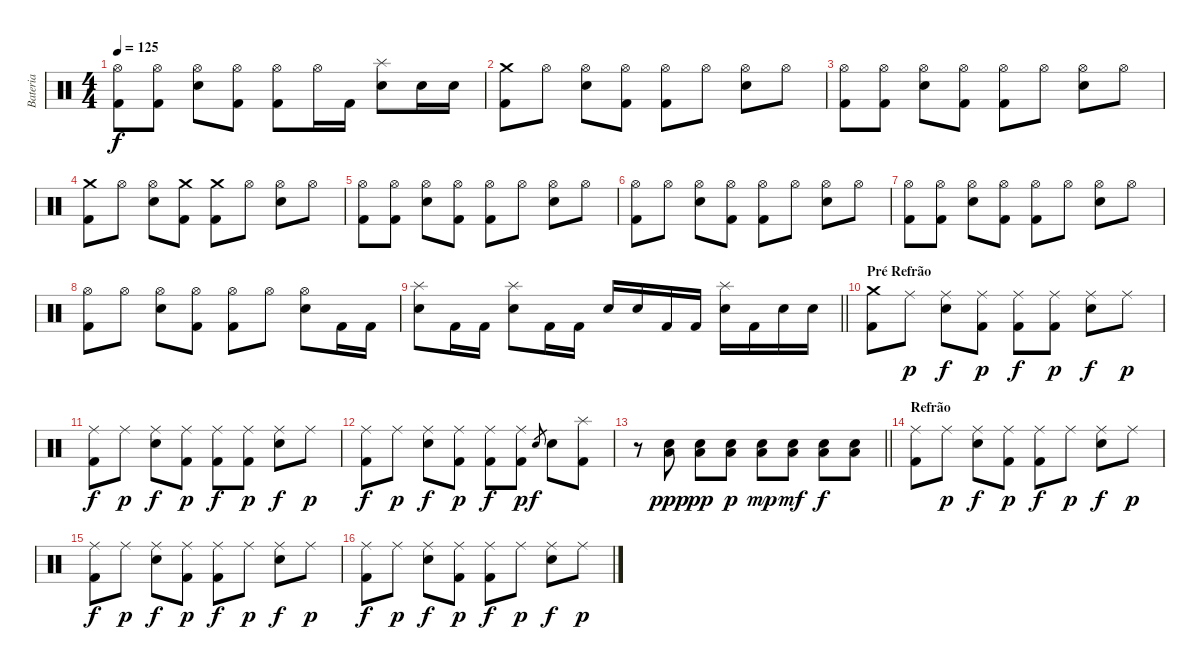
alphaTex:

\track ("Bateria" "Bateria") {instrument percussion}
\staff {score}
\articulation defaults
\ts (4 4)
\tempo 125
\clef neutral
\ks c
("Hi-Hat (open)" "Kick (hit) 2").8{dy f} ("Hi-Hat (open)" "Kick (hit) 2").8 ("Hi-Hat (open)" "Electric Snare (hit)").8 ("Hi-Hat (open)" "Kick (hit) 2").8 ("Hi-Hat (open)" "Kick (hit) 2").8 "Hi-Hat (open)".16 "Kick (hit) 2".16 ("Splash (hit)" "Electric Snare (hit)").8 "Electric Snare (hit)".16 "Electric Snare (hit)".16 |
("Crash medium (hit)" "Kick (hit) 2").8 "Hi-Hat (open)".8 ("Hi-Hat (open)" "Electric Snare (hit)").8 ("Hi-Hat (open)" "Kick (hit) 2").8 ("Hi-Hat (open)" "Kick (hit) 2").8 "Hi-Hat (open)".8 ("Hi-Hat (open)" "Electric Snare (hit)").8 "Hi-Hat (open)".8 |
("Hi-Hat (open)" "Kick (hit) 2").8 ("Hi-Hat (open)" "Kick (hit) 2").8 ("Hi-Hat (open)" "Electric Snare (hit)").8 ("Hi-Hat (open)" "Kick (hit) 2").8 ("Hi-Hat (open)" "Kick (hit) 2").8 "Hi-Hat (open)".8 ("Hi-Hat (open)" "Electric Snare (hit)").8 "Hi-Hat (open)".8 |
("Crash medium (hit)" "Kick (hit) 2").8 "Hi-Hat (open)".8 ("Hi-Hat (open)" "Electric Snare (hit)").8 ("Crash medium (hit)" "Kick (hit) 2").8 ("Crash medium (hit)" "Kick (hit) 2").8 "Hi-Hat (open)".8 ("Hi-Hat (open)" "Electric Snare (hit)").8 "Hi-Hat (open)".8 |
("Hi-Hat (open)" "Kick (hit) 2").8 ("Hi-Hat (open)" "Kick (hit) 2").8 ("Hi-Hat (open)" "Electric Snare (hit)").8 ("Hi-Hat (open)" "Kick (hit) 2").8 ("Hi-Hat (open)" "Kick (hit) 2").8 "Hi-Hat (open)".8 ("Hi-Hat (open)" "Electric Snare (hit)").8 "Hi-Hat (open)".8 |
("Hi-Hat (open)" "Kick (hit) 2").8 "Hi-Hat (open)".8 ("Hi-Hat (open)" "Electric Snare (hit)").8 ("Hi-Hat (open)" "Kick (hit) 2").8 ("Hi-Hat (open)" "Kick (hit) 2").8 "Hi-Hat (open)".8 ("Hi-Hat (open)" "Electric Snare (hit)").8 "Hi-Hat (open)".8 |
("Hi-Hat (open)" "Kick (hit) 2").8 ("Hi-Hat (open)" "Kick (hit) 2").8 ("Hi-Hat (open)" "Electric Snare (hit)").8 ("Hi-Hat (open)" "Kick (hit) 2").8 ("Hi-Hat (open)" "Kick (hit) 2").8 "Hi-Hat (open)".8 ("Hi-Hat (open)" "Electric Snare (hit)").8 "Hi-Hat (open)".8 |
("Hi-Hat (open)" "Kick (hit) 2").8 "Hi-Hat (open)".8 ("Hi-Hat (open)" "Electric Snare (hit)").8 ("Hi-Hat (open)" "Kick (hit) 2").8 ("Hi-Hat (open)" "Kick (hit) 2").8 "Hi-Hat (open)".8 ("Hi-Hat (open)" "Electric Snare (hit)").8 "Kick (hit) 2".16 "Kick (hit) 2".16 |
\barLineRight lightlight
("Splash (hit)" "Electric Snare (hit)").8 "Kick (hit) 2".16 "Kick (hit) 2".16 ("Splash (hit)" "Electric Snare (hit)").8 "Kick (hit) 2".16 "Kick (hit) 2".16 "Electric Snare (hit)".16 "Electric Snare (hit)".16 "Kick (hit) 2".16 "Kick (hit) 2".16 ("Splash (hit)" "Electric Snare (hit)").16 "Kick (hit) 2".16 "Electric Snare (hit)".16 "Electric Snare (hit)".16 |
\section ("" "Pré Refrão")
("Crash medium (hit)" "Kick (hit) 2").8 "Ride (middle)".8{dy p} ("Ride (middle)" "Electric Snare (hit)").8{dy f} ("Ride (middle)" "Kick (hit) 2").8{dy p} ("Ride (middle)" "Kick (hit) 2").8{dy f} ("Ride (middle)" "Kick (hit) 2").8{dy p} ("Ride (middle)" "Electric Snare (hit)").8{dy f} "Ride (middle)".8{dy p} |
("Ride (middle)" "Kick (hit) 2").8{dy f} "Ride (middle)".8{dy p} ("Ride (middle)" "Electric Snare (hit)").8{dy f} ("Ride (middle)" "Kick (hit) 2").8{dy p} ("Ride (middle)" "Kick (hit) 2").8{dy f} ("Ride (middle)" "Kick (hit) 2").8{dy p} ("Ride (middle)" "Electric Snare (hit)").8{dy f} "Ride (middle)".8{dy p} |
("Ride (middle)" "Kick (hit) 2").8{dy f} "Ride (middle)".8{dy p} ("Ride (middle)" "Electric Snare (hit)").8{dy f} ("Ride (middle)" "Kick (hit) 2").8{dy p} ("Ride (middle)" "Kick (hit) 2").8{dy f} ("Ride (middle)" "Kick (hit) 2").8{dy p} "Electric Snare (hit)".8{gr dy f} "Electric Snare (hit)".8 ("Splash (hit)" "Kick (hit) 2").8 |
\barLineRight lightlight
r.8 ("Snare (hit)" "Low Floor Tom (hit)").8{dy ppp} ("Electric Snare (hit)" "Low Floor Tom (hit)").8{dy pp} ("Electric Snare (hit)" "Low Floor Tom (hit)").8{dy p} ("Electric Snare (hit)" "Low Floor Tom (hit)").8{dy mp} ("Electric Snare (hit)" "Low Floor Tom (hit)").8{dy mf} ("Electric Snare (hit)" "Low Floor Tom (hit)").8{dy f} ("Electric Snare (hit)" "Low Floor Tom (hit)").8 |
\section ("" "Refrão")
("Ride (middle)" "Kick (hit) 2").8 "Ride (middle)".8{dy p} ("Ride (middle)" "Electric Snare (hit)").8{dy f} ("Ride (middle)" "Kick (hit) 2").8{dy p} ("Ride (middle)" "Kick (hit) 2").8{dy f} "Ride (middle)".8{dy p} ("Ride (middle)" "Electric Snare (hit)").8{dy f} "Ride (middle)".8{dy p} |
("Ride (middle)" "Kick (hit) 2").8{dy f} "Ride (middle)".8{dy p} ("Ride (middle)" "Electric Snare (hit)").8{dy f} ("Ride (middle)" "Kick (hit) 2").8{dy p} ("Ride (middle)" "Kick (hit) 2").8{dy f} "Ride (middle)".8{dy p} ("Ride (middle)" "Electric Snare (hit)").8{dy f} "Ride (middle)".8{dy p} |
("Ride (middle)" "Kick (hit) 2").8{dy f} "Ride (middle)".8{dy p} ("Ride (middle)" "Electric Snare (hit)").8{dy f} ("Ride (middle)" "Kick (hit) 2").8{dy p} ("Ride (middle)" "Kick (hit) 2").8{dy f} "Ride (middle)".8{dy p} ("Ride (middle)" "Electric Snare (hit)").8{dy f} "Ride (middle)".8{dy p}
